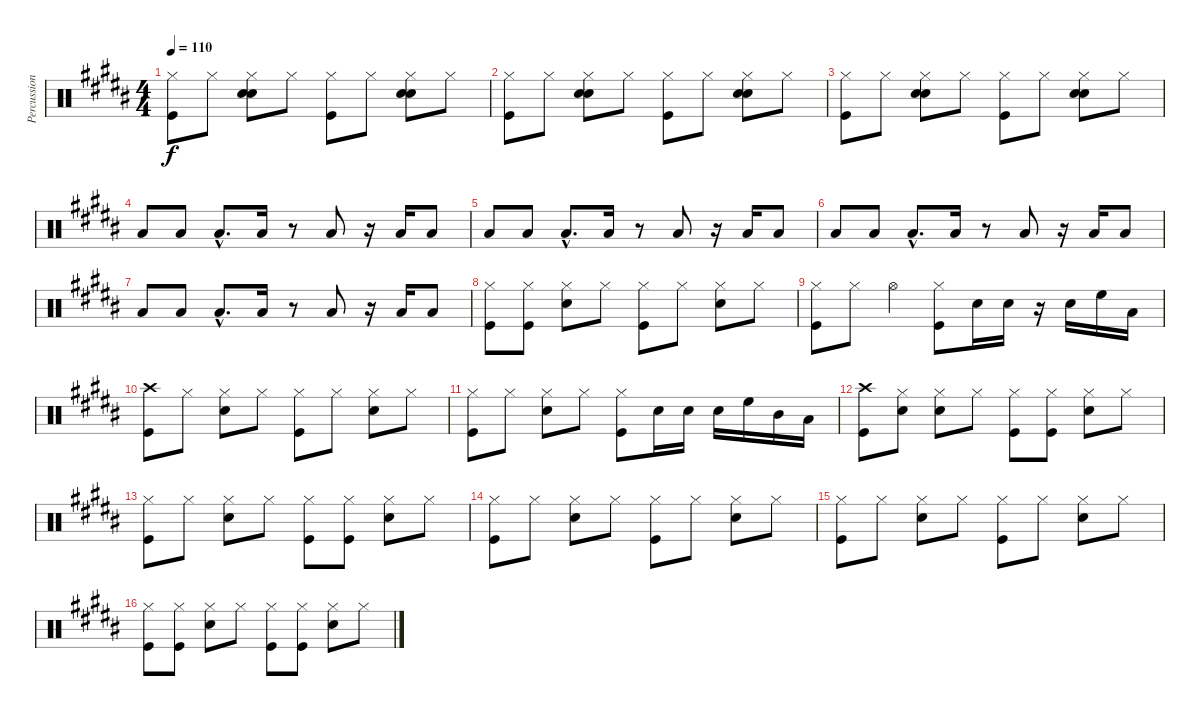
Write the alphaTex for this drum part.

\track ("Percussions" "Percussion") {instrument percussion}
\staff {score}
\articulation defaults
\ts (4 4)
\tempo 110
\clef neutral
\ks b
("Hi-Hat (closed)" "Kick (hit)").8{dy f} "Hi-Hat (closed)".8 ("Hi-Hat (closed)" "Snare (hit) 2" "Snare (hit) 2").8 "Hi-Hat (closed)".8 ("Hi-Hat (closed)" "Kick (hit)").8 "Hi-Hat (closed)".8 ("Hi-Hat (closed)" "Snare (hit) 2" "Snare (hit) 2").8 "Hi-Hat (closed)".8 |
("Hi-Hat (closed)" "Kick (hit)").8 "Hi-Hat (closed)".8 ("Hi-Hat (closed)" "Snare (hit) 2" "Snare (hit) 2").8 "Hi-Hat (closed)".8 ("Hi-Hat (closed)" "Kick (hit)").8 "Hi-Hat (closed)".8 ("Hi-Hat (closed)" "Snare (hit) 2" "Snare (hit) 2").8 "Hi-Hat (closed)".8 |
("Hi-Hat (closed)" "Kick (hit)").8 "Hi-Hat (closed)".8 ("Hi-Hat (closed)" "Snare (hit) 2" "Snare (hit) 2").8 "Hi-Hat (closed)".8 ("Hi-Hat (closed)" "Kick (hit)").8 "Hi-Hat (closed)".8 ("Hi-Hat (closed)" "Snare (hit) 2" "Snare (hit) 2").8 "Hi-Hat (closed)".8 |
"Low Floor Tom (hit)".8 "Low Floor Tom (hit)".8 "Low Floor Tom (hit)"{hac}.8{d} "Low Floor Tom (hit)".16 r.8 "Low Floor Tom (hit)".8 r.16 "Low Floor Tom (hit)".16 "Low Floor Tom (hit)".8 |
"Low Floor Tom (hit)".8 "Low Floor Tom (hit)".8 "Low Floor Tom (hit)"{hac}.8{d} "Low Floor Tom (hit)".16 r.8 "Low Floor Tom (hit)".8 r.16 "Low Floor Tom (hit)".16 "Low Floor Tom (hit)".8 |
"Low Floor Tom (hit)".8 "Low Floor Tom (hit)".8 "Low Floor Tom (hit)"{hac}.8{d} "Low Floor Tom (hit)".16 r.8 "Low Floor Tom (hit)".8 r.16 "Low Floor Tom (hit)".16 "Low Floor Tom (hit)".8 |
"Low Floor Tom (hit)".8 "Low Floor Tom (hit)".8 "Low Floor Tom (hit)"{hac}.8{d} "Low Floor Tom (hit)".16 r.8 "Low Floor Tom (hit)".8 r.16 "Low Floor Tom (hit)".16 "Low Floor Tom (hit)".8 |
("Hi-Hat (closed)" "Kick (hit)").8 ("Hi-Hat (closed)" "Kick (hit)").8 ("Hi-Hat (closed)" "Snare (hit) 2").8 "Hi-Hat (closed)".8 ("Hi-Hat (closed)" "Kick (hit)").8 "Hi-Hat (closed)".8 ("Hi-Hat (closed)" "Snare (hit) 2").8 "Hi-Hat (closed)".8 |
("Hi-Hat (closed)" "Kick (hit)").8 "Hi-Hat (closed)".8 "Hi-Hat (open)".4 ("Hi-Hat (closed)" "Kick (hit)").8 "Snare (hit) 2".16 "Snare (hit) 2".16 r.16 "Snare (hit) 2".16 "High Floor Tom (hit)".16 "Low Tom (hit)".16 |
("Crash high (hit)" "Kick (hit)").8 "Hi-Hat (closed)".8 ("Hi-Hat (closed)" "Snare (hit) 2").8 "Hi-Hat (closed)".8 ("Hi-Hat (closed)" "Kick (hit)").8 "Hi-Hat (closed)".8 ("Hi-Hat (closed)" "Snare (hit) 2").8 "Hi-Hat (closed)".8 |
("Hi-Hat (closed)" "Kick (hit)").8 "Hi-Hat (closed)".8 ("Hi-Hat (closed)" "Snare (hit) 2").8 "Hi-Hat (closed)".8 ("Hi-Hat (closed)" "Kick (hit)").8 "Snare (hit) 2".16 "Snare (hit) 2".16 "Snare (hit) 2".16 "High Floor Tom (hit)".16 "Mid Tom (hit)".16 "Low Tom (hit)".16 |
("Crash high (hit)" "Kick (hit)").8 ("Hi-Hat (closed)" "Snare (hit) 2").8 ("Hi-Hat (closed)" "Snare (hit) 2").8 "Hi-Hat (closed)".8 ("Hi-Hat (closed)" "Kick (hit)").8 ("Hi-Hat (closed)" "Kick (hit)").8 ("Hi-Hat (closed)" "Snare (hit) 2").8 "Hi-Hat (closed)".8 |
("Hi-Hat (closed)" "Kick (hit)").8 "Hi-Hat (closed)".8 ("Hi-Hat (closed)" "Snare (hit) 2").8 "Hi-Hat (closed)".8 ("Hi-Hat (closed)" "Kick (hit)").8 ("Hi-Hat (closed)" "Kick (hit)").8 ("Hi-Hat (closed)" "Snare (hit) 2").8 "Hi-Hat (closed)".8 |
("Hi-Hat (closed)" "Kick (hit)").8 "Hi-Hat (closed)".8 ("Hi-Hat (closed)" "Snare (hit) 2").8 "Hi-Hat (closed)".8 ("Hi-Hat (closed)" "Kick (hit)").8 "Hi-Hat (closed)".8 ("Hi-Hat (closed)" "Snare (hit) 2").8 "Hi-Hat (closed)".8 |
("Hi-Hat (closed)" "Kick (hit)").8 "Hi-Hat (closed)".8 ("Hi-Hat (closed)" "Snare (hit) 2").8 "Hi-Hat (closed)".8 ("Hi-Hat (closed)" "Kick (hit)").8 "Hi-Hat (closed)".8 ("Hi-Hat (closed)" "Snare (hit) 2").8 "Hi-Hat (closed)".8 |
("Hi-Hat (closed)" "Kick (hit)").8 ("Hi-Hat (closed)" "Kick (hit)").8 ("Hi-Hat (closed)" "Snare (hit) 2").8 "Hi-Hat (closed)".8 ("Hi-Hat (closed)" "Kick (hit)").8 ("Hi-Hat (closed)" "Kick (hit)").8 ("Hi-Hat (closed)" "Snare (hit) 2").8 "Hi-Hat (closed)".8
